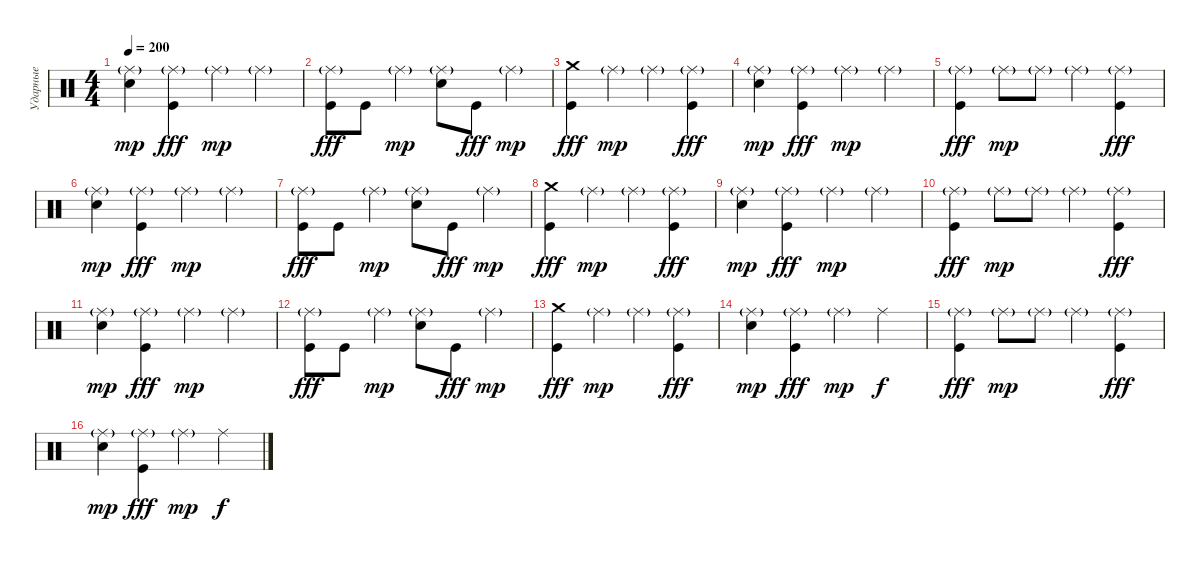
\track ("Ударные" "Ударные") {instrument percussion}
\staff {score}
\articulation defaults
\ts (4 4)
\tempo 200
\clef neutral
\ks c
("Ride (middle)"{g} "Electric Snare (hit)").4{dy mp} ("Ride (middle)"{g} "Kick (hit)").4{dy fff} "Ride (middle)"{g}.4{dy mp} "Ride (middle)"{g}.4 |
("Ride (middle)"{g} "Kick (hit)").8{dy fff} "Kick (hit)".8 "Ride (middle)"{g}.4{dy mp} ("Ride (middle)"{g} "Electric Snare (hit)").8 "Kick (hit)".8{dy fff} "Ride (middle)"{g}.4{dy mp} |
("Crash medium (hit)" "Kick (hit)").4{dy fff} "Ride (middle)"{g}.4{dy mp} "Ride (middle)"{g}.4 ("Ride (middle)"{g} "Kick (hit)").4{dy fff} |
("Ride (middle)"{g} "Electric Snare (hit)").4{dy mp} ("Ride (middle)"{g} "Kick (hit)").4{dy fff} "Ride (middle)"{g}.4{dy mp} "Ride (middle)"{g}.4 |
("Ride (middle)"{g} "Kick (hit)").4{dy fff} "Ride (middle)"{g}.8{dy mp} "Ride (middle)"{g}.8 "Ride (middle)"{g}.4 ("Ride (middle)"{g} "Kick (hit)").4{dy fff} |
("Ride (middle)"{g} "Electric Snare (hit)").4{dy mp} ("Ride (middle)"{g} "Kick (hit)").4{dy fff} "Ride (middle)"{g}.4{dy mp} "Ride (middle)"{g}.4 |
("Ride (middle)"{g} "Kick (hit)").8{dy fff} "Kick (hit)".8 "Ride (middle)"{g}.4{dy mp} ("Ride (middle)"{g} "Electric Snare (hit)").8 "Kick (hit)".8{dy fff} "Ride (middle)"{g}.4{dy mp} |
("Crash medium (hit)" "Kick (hit)").4{dy fff volume 13} "Ride (middle)"{g}.4{dy mp} "Ride (middle)"{g}.4 ("Ride (middle)"{g} "Kick (hit)").4{dy fff} |
("Ride (middle)"{g} "Electric Snare (hit)").4{dy mp} ("Ride (middle)"{g} "Kick (hit)").4{dy fff} "Ride (middle)"{g}.4{dy mp} "Ride (middle)"{g}.4 |
("Ride (middle)"{g} "Kick (hit)").4{dy fff} "Ride (middle)"{g}.8{dy mp} "Ride (middle)"{g}.8 "Ride (middle)"{g}.4 ("Ride (middle)"{g} "Kick (hit)").4{dy fff} |
("Ride (middle)"{g} "Electric Snare (hit)").4{dy mp} ("Ride (middle)"{g} "Kick (hit)").4{dy fff} "Ride (middle)"{g}.4{dy mp} "Ride (middle)"{g}.4 |
("Ride (middle)"{g} "Kick (hit)").8{dy fff} "Kick (hit)".8 "Ride (middle)"{g}.4{dy mp} ("Ride (middle)"{g} "Electric Snare (hit)").8 "Kick (hit)".8{dy fff} "Ride (middle)"{g}.4{dy mp} |
("Crash medium (hit)" "Kick (hit)").4{dy fff} "Ride (middle)"{g}.4{dy mp} "Ride (middle)"{g}.4 ("Ride (middle)"{g} "Kick (hit)").4{dy fff} |
("Ride (middle)"{g} "Electric Snare (hit)").4{dy mp} ("Ride (middle)"{g} "Kick (hit)").4{dy fff} "Ride (middle)"{g}.4{dy mp} "Ride (middle)".4{dy f} |
("Ride (middle)"{g} "Kick (hit)").4{dy fff} "Ride (middle)"{g}.8{dy mp} "Ride (middle)"{g}.8 "Ride (middle)"{g}.4 ("Ride (middle)"{g} "Kick (hit)").4{dy fff} |
("Ride (middle)"{g} "Electric Snare (hit)").4{dy mp} ("Ride (middle)"{g} "Kick (hit)").4{dy fff} "Ride (middle)"{g}.4{dy mp} "Ride (middle)".4{dy f}
